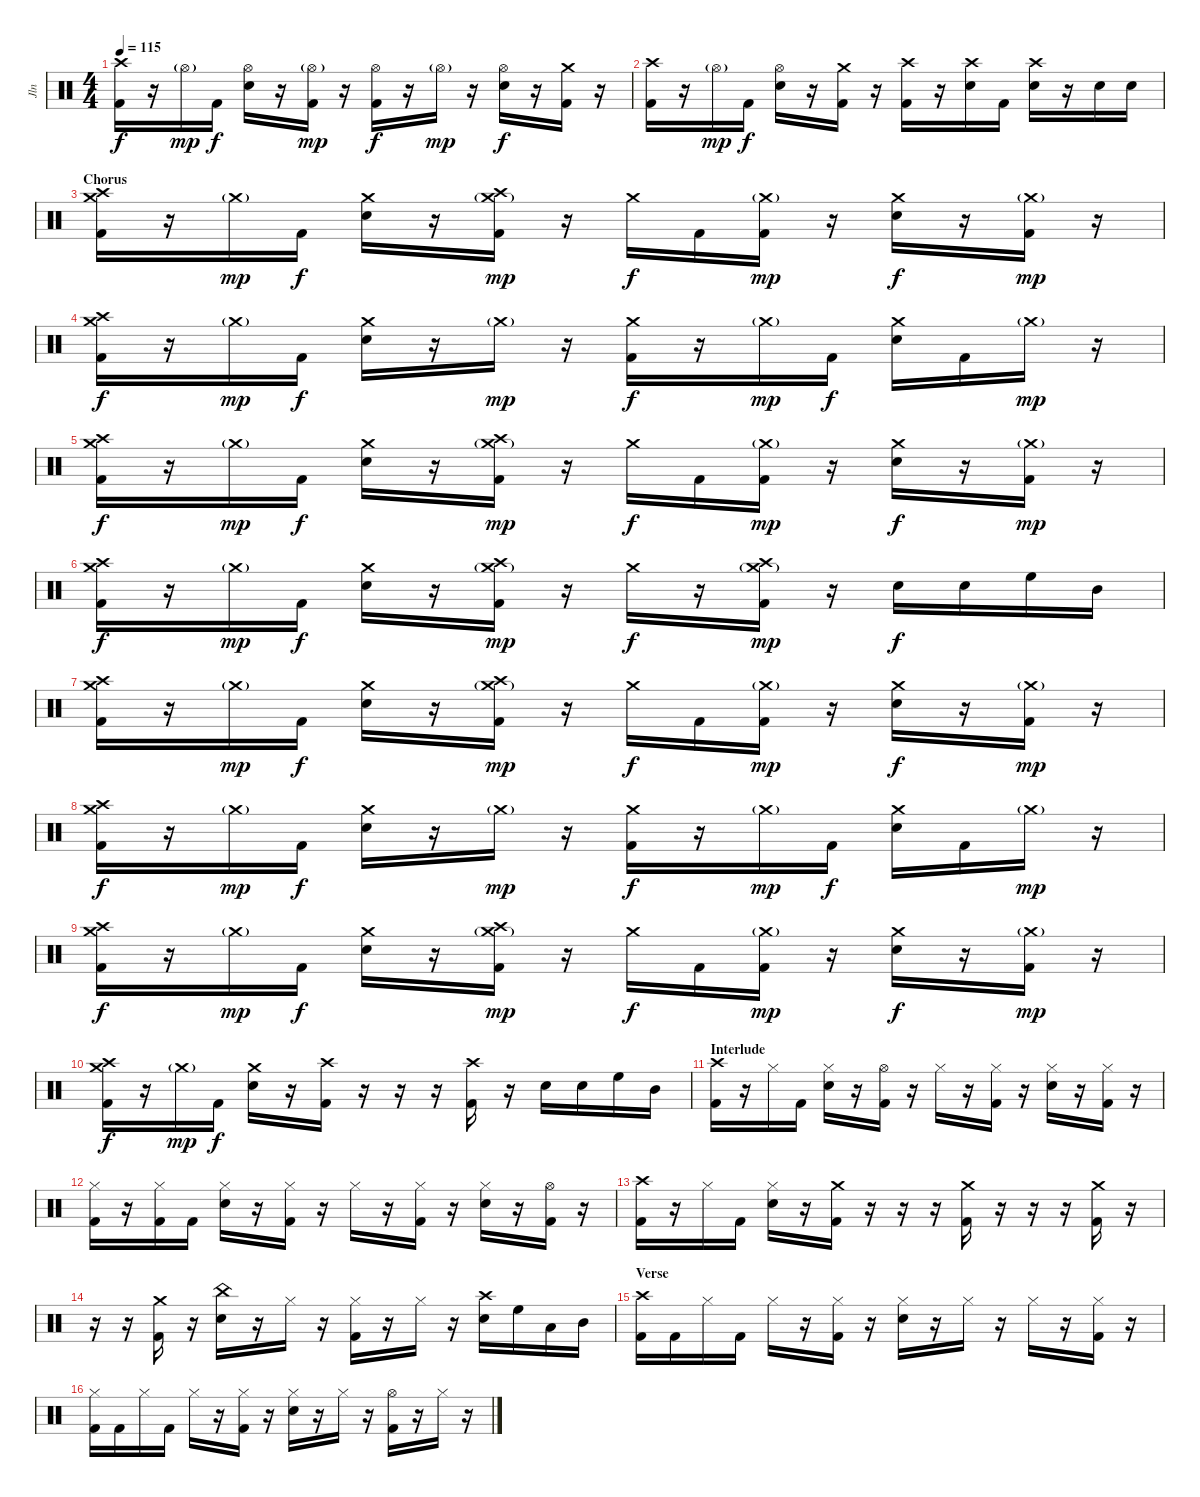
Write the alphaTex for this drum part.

\track ("Jln" "Jln") {instrument percussion}
\staff {score}
\articulation defaults
\ts (4 4)
\tempo 115
\clef neutral
\ks c
("Crash high (hit)" "Kick (hit) 2").16{dy f} r.16 "Hi-Hat (open)"{g}.16{dy mp} "Kick (hit) 2".16{dy f} ("Hi-Hat (open)" "Electric Snare (hit)").16 r.16 ("Hi-Hat (open)"{g} "Kick (hit) 2").16{dy mp} r.16 ("Hi-Hat (open)" "Kick (hit) 2").16{dy f} r.16 "Hi-Hat (open)"{g}.16{dy mp} r.16 ("Hi-Hat (open)" "Electric Snare (hit)").16{dy f} r.16 ("Crash medium (hit)" "Kick (hit) 2").16 r.16 |
("Crash high (hit)" "Kick (hit) 2").16 r.16 "Hi-Hat (open)"{g}.16{dy mp} "Kick (hit) 2".16{dy f} ("Hi-Hat (open)" "Electric Snare (hit)").16 r.16 ("Crash medium (hit)" "Kick (hit) 2").16 r.16 ("Crash high (hit)" "Kick (hit) 2").16 r.16 ("Crash high (hit)" "Electric Snare (hit)").16 "Kick (hit) 2".16 ("Crash high (hit)" "Electric Snare (hit)").16 r.16 "Electric Snare (hit)".16 "Electric Snare (hit)".16 |
\section ("" "Chorus")
("Crash medium (hit)" "Crash high (hit)" "Kick (hit) 2").16 r.16 "Crash medium (hit)"{g}.16{dy mp} "Kick (hit) 2".16{dy f} ("Crash medium (hit)" "Electric Snare (hit)").16 r.16 ("Crash medium (hit)"{g} "Crash high (hit)" "Kick (hit) 2").16{dy mp} r.16 "Crash medium (hit)".16{dy f} "Kick (hit) 2".16 ("Crash medium (hit)"{g} "Kick (hit) 2").16{dy mp} r.16 ("Crash medium (hit)" "Electric Snare (hit)").16{dy f} r.16 ("Crash medium (hit)"{g} "Kick (hit) 2").16{dy mp} r.16 |
("Crash medium (hit)" "Crash high (hit)" "Kick (hit) 2").16{dy f} r.16 "Crash medium (hit)"{g}.16{dy mp} "Kick (hit) 2".16{dy f} ("Crash medium (hit)" "Electric Snare (hit)").16 r.16 "Crash medium (hit)"{g}.16{dy mp} r.16 ("Crash medium (hit)" "Kick (hit) 2").16{dy f} r.16 "Crash medium (hit)"{g}.16{dy mp} "Kick (hit) 2".16{dy f} ("Crash medium (hit)" "Electric Snare (hit)").16 "Kick (hit) 2".16 "Crash medium (hit)"{g}.16{dy mp} r.16 |
("Crash medium (hit)" "Crash high (hit)" "Kick (hit) 2").16{dy f} r.16 "Crash medium (hit)"{g}.16{dy mp} "Kick (hit) 2".16{dy f} ("Crash medium (hit)" "Electric Snare (hit)").16 r.16 ("Crash medium (hit)"{g} "Crash high (hit)" "Kick (hit) 2").16{dy mp} r.16 "Crash medium (hit)".16{dy f} "Kick (hit) 2".16 ("Crash medium (hit)"{g} "Kick (hit) 2").16{dy mp} r.16 ("Crash medium (hit)" "Electric Snare (hit)").16{dy f} r.16 ("Crash medium (hit)"{g} "Kick (hit) 2").16{dy mp} r.16 |
("Crash medium (hit)" "Crash high (hit)" "Kick (hit) 2").16{dy f} r.16 "Crash medium (hit)"{g}.16{dy mp} "Kick (hit) 2".16{dy f} ("Crash medium (hit)" "Electric Snare (hit)").16 r.16 ("Crash medium (hit)"{g} "Crash high (hit)" "Kick (hit) 2").16{dy mp} r.16 "Crash medium (hit)".16{dy f} r.16 ("Crash medium (hit)"{g} "Crash high (hit)" "Kick (hit) 2").16{dy mp} r.16 "Electric Snare (hit)".16{dy f} "Electric Snare (hit)".16 "High Floor Tom (hit)".16 "Mid Tom (hit)".16 |
("Crash medium (hit)" "Crash high (hit)" "Kick (hit) 2").16 r.16 "Crash medium (hit)"{g}.16{dy mp} "Kick (hit) 2".16{dy f} ("Crash medium (hit)" "Electric Snare (hit)").16 r.16 ("Crash medium (hit)"{g} "Crash high (hit)" "Kick (hit) 2").16{dy mp} r.16 "Crash medium (hit)".16{dy f} "Kick (hit) 2".16 ("Crash medium (hit)"{g} "Kick (hit) 2").16{dy mp} r.16 ("Crash medium (hit)" "Electric Snare (hit)").16{dy f} r.16 ("Crash medium (hit)"{g} "Kick (hit) 2").16{dy mp} r.16 |
("Crash medium (hit)" "Crash high (hit)" "Kick (hit) 2").16{dy f} r.16 "Crash medium (hit)"{g}.16{dy mp} "Kick (hit) 2".16{dy f} ("Crash medium (hit)" "Electric Snare (hit)").16 r.16 "Crash medium (hit)"{g}.16{dy mp} r.16 ("Crash medium (hit)" "Kick (hit) 2").16{dy f} r.16 "Crash medium (hit)"{g}.16{dy mp} "Kick (hit) 2".16{dy f} ("Crash medium (hit)" "Electric Snare (hit)").16 "Kick (hit) 2".16 "Crash medium (hit)"{g}.16{dy mp} r.16 |
("Crash medium (hit)" "Crash high (hit)" "Kick (hit) 2").16{dy f} r.16 "Crash medium (hit)"{g}.16{dy mp} "Kick (hit) 2".16{dy f} ("Crash medium (hit)" "Electric Snare (hit)").16 r.16 ("Crash medium (hit)"{g} "Crash high (hit)" "Kick (hit) 2").16{dy mp} r.16 "Crash medium (hit)".16{dy f} "Kick (hit) 2".16 ("Crash medium (hit)"{g} "Kick (hit) 2").16{dy mp} r.16 ("Crash medium (hit)" "Electric Snare (hit)").16{dy f} r.16 ("Crash medium (hit)"{g} "Kick (hit) 2").16{dy mp} r.16 |
("Crash medium (hit)" "Crash high (hit)" "Kick (hit) 2").16{dy f} r.16 "Crash medium (hit)"{g}.16{dy mp} "Kick (hit) 2".16{dy f} ("Crash medium (hit)" "Electric Snare (hit)").16 r.16 ("Crash high (hit)" "Kick (hit) 2").16 r.16 r.16 r.16 ("Crash high (hit)" "Kick (hit) 2").16 r.16 "Electric Snare (hit)".16 "Electric Snare (hit)".16 "High Floor Tom (hit)".16 "Mid Tom (hit)".16 |
\section ("" "Interlude")
("Crash high (hit)" "Kick (hit) 2").16 r.16 "Hi-Hat (closed)".16 "Kick (hit) 2".16 ("Hi-Hat (closed)" "Electric Snare (hit)").16 r.16 ("Hi-Hat (open)" "Kick (hit) 2").16 r.16 "Hi-Hat (closed)".16 r.16 ("Hi-Hat (closed)" "Kick (hit) 2").16 r.16 ("Hi-Hat (closed)" "Electric Snare (hit)").16 r.16 ("Hi-Hat (closed)" "Kick (hit) 2").16 r.16 |
("Hi-Hat (closed)" "Kick (hit) 2").16 r.16 ("Hi-Hat (closed)" "Kick (hit) 2").16 "Kick (hit) 2".16 ("Hi-Hat (closed)" "Electric Snare (hit)").16 r.16 ("Hi-Hat (closed)" "Kick (hit) 2").16 r.16 "Hi-Hat (closed)".16 r.16 ("Hi-Hat (closed)" "Kick (hit) 2").16 r.16 ("Hi-Hat (closed)" "Electric Snare (hit)").16 r.16 ("Hi-Hat (open)" "Kick (hit) 2").16 r.16 |
("Crash high (hit)" "Kick (hit) 2").16 r.16 "Hi-Hat (closed)".16 "Kick (hit) 2".16 ("Hi-Hat (closed)" "Electric Snare (hit)").16 r.16 ("Crash medium (hit)" "Kick (hit) 2").16 r.16 r.16 r.16 ("Crash medium (hit)" "Kick (hit) 2").16 r.16 r.16 r.16 ("Crash medium (hit)" "Kick (hit) 2").16 r.16 |
r.16 r.16 ("Crash medium (hit)" "Kick (hit) 2").16 r.16 ("China (hit)" "Electric Snare (hit)").16 r.16 "Hi-Hat (closed)".16 r.16 ("Hi-Hat (closed)" "Kick (hit) 2").16 r.16 "Hi-Hat (closed)".16 r.16 ("Crash high (hit)" "Electric Snare (hit)").16 "High Floor Tom (hit)".16 "Low Tom (hit)".16 "Mid Tom (hit)".16 |
\section ("" "Verse")
("Crash high (hit)" "Kick (hit) 2").16 "Kick (hit) 2".16 "Hi-Hat (closed)".16 "Kick (hit) 2".16 "Hi-Hat (closed)".16 r.16 ("Hi-Hat (closed)" "Kick (hit) 2").16 r.16 ("Hi-Hat (closed)" "Electric Snare (hit)").16 r.16 "Hi-Hat (closed)".16 r.16 "Hi-Hat (closed)".16 r.16 ("Hi-Hat (closed)" "Kick (hit) 2").16 r.16 |
("Hi-Hat (closed)" "Kick (hit) 2").16 "Kick (hit) 2".16 "Hi-Hat (closed)".16 "Kick (hit) 2".16 "Hi-Hat (closed)".16 r.16 ("Hi-Hat (closed)" "Kick (hit) 2").16 r.16 ("Hi-Hat (closed)" "Electric Snare (hit)").16 r.16 "Hi-Hat (closed)".16 r.16 ("Hi-Hat (open)" "Kick (hit) 2").16 r.16 "Hi-Hat (closed)".16 r.16
